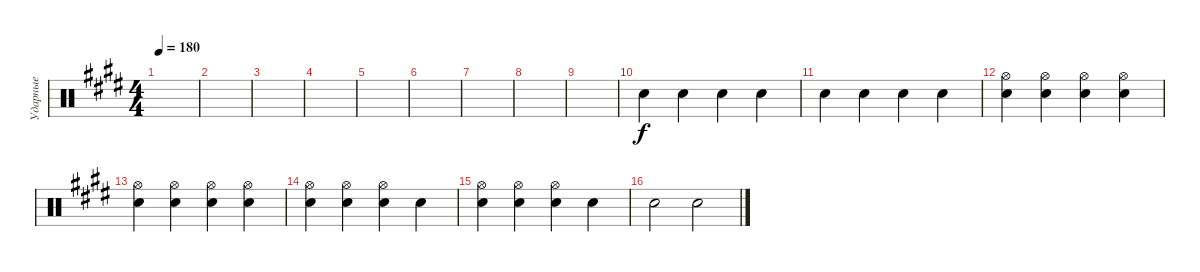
\track ("Ударные" "Ударные") {instrument percussion}
\staff {score}
\articulation defaults
\ts (4 4)
\tempo 180
\clef neutral
\ks e
|
|
|
|
|
|
|
|
|
"Snare (hit) 2".4 "Snare (hit) 2".4 "Snare (hit) 2".4 "Snare (hit) 2".4 |
"Snare (hit) 2".4 "Snare (hit) 2".4 "Snare (hit) 2".4 "Snare (hit) 2".4 |
("Snare (hit) 2" "Hi-Hat (open)").4 ("Snare (hit) 2" "Hi-Hat (open)").4 ("Snare (hit) 2" "Hi-Hat (open)").4 ("Snare (hit) 2" "Hi-Hat (open)").4 |
("Snare (hit) 2" "Hi-Hat (open)").4 ("Snare (hit) 2" "Hi-Hat (open)").4 ("Snare (hit) 2" "Hi-Hat (open)").4 ("Snare (hit) 2" "Hi-Hat (open)").4 |
("Snare (hit) 2" "Hi-Hat (open)").4 ("Snare (hit) 2" "Hi-Hat (open)").4 ("Snare (hit) 2" "Hi-Hat (open)").4 "Snare (hit) 2".4 |
("Snare (hit) 2" "Hi-Hat (open)").4 ("Snare (hit) 2" "Hi-Hat (open)").4 ("Snare (hit) 2" "Hi-Hat (open)").4 "Snare (hit) 2".4 |
"Snare (hit) 2".2 "Snare (hit) 2".2
